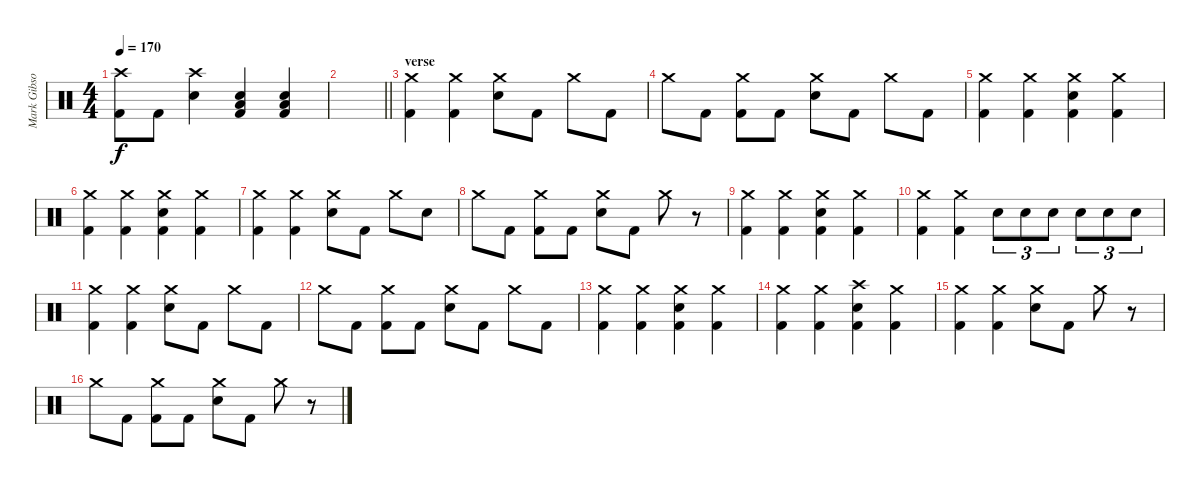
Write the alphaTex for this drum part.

\track ("Mark Gibson" "Mark Gibso") {instrument percussion}
\staff {score}
\articulation defaults
\ts (4 4)
\tempo 170
\clef neutral
\ks c
("Crash high (hit)" "Kick (hit) 2").8{dy f} "Kick (hit) 2".8 ("Crash high (hit)" "Electric Snare (hit)").4 ("Electric Snare (hit)" "Low Floor Tom (hit)" "Kick (hit) 2").4 ("Electric Snare (hit)" "Low Floor Tom (hit)" "Kick (hit) 2").4 |
\barLineRight lightlight
|
\section ("" "verse")
("Crash medium (hit)" "Kick (hit) 2").4 ("Crash medium (hit)" "Kick (hit) 2").4 ("Crash medium (hit)" "Electric Snare (hit)").8 "Kick (hit) 2".8 "Crash medium (hit)".8 "Kick (hit) 2".8 |
"Crash medium (hit)".8 "Kick (hit) 2".8 ("Crash medium (hit)" "Kick (hit) 2").8 "Kick (hit) 2".8 ("Crash medium (hit)" "Electric Snare (hit)").8 "Kick (hit) 2".8 "Crash medium (hit)".8 "Kick (hit) 2".8 |
("Crash medium (hit)" "Kick (hit) 2").4 ("Crash medium (hit)" "Kick (hit) 2").4 ("Crash medium (hit)" "Electric Snare (hit)" "Kick (hit) 2").4 ("Crash medium (hit)" "Kick (hit) 2").4 |
("Crash medium (hit)" "Kick (hit) 2").4 ("Crash medium (hit)" "Kick (hit) 2").4 ("Crash medium (hit)" "Electric Snare (hit)" "Kick (hit) 2").4 ("Crash medium (hit)" "Kick (hit) 2").4 |
("Crash medium (hit)" "Kick (hit) 2").4 ("Crash medium (hit)" "Kick (hit) 2").4 ("Crash medium (hit)" "Electric Snare (hit)").8 "Kick (hit) 2".8 "Crash medium (hit)".8 "Electric Snare (hit)".8 |
"Crash medium (hit)".8 "Kick (hit) 2".8 ("Crash medium (hit)" "Kick (hit) 2").8 "Kick (hit) 2".8 ("Crash medium (hit)" "Electric Snare (hit)").8 "Kick (hit) 2".8 "Crash medium (hit)".8 r.8 |
("Crash medium (hit)" "Kick (hit) 2").4 ("Crash medium (hit)" "Kick (hit) 2").4 ("Crash medium (hit)" "Electric Snare (hit)" "Kick (hit) 2").4 ("Crash medium (hit)" "Kick (hit) 2").4 |
("Crash medium (hit)" "Kick (hit) 2").4 ("Crash medium (hit)" "Kick (hit) 2").4 "Electric Snare (hit)".8{tu (3 2)} "Electric Snare (hit)".8{tu (3 2)} "Electric Snare (hit)".8{tu (3 2)} "Electric Snare (hit)".8{tu (3 2)} "Electric Snare (hit)".8{tu (3 2)} "Electric Snare (hit)".8{tu (3 2)} |
("Crash medium (hit)" "Kick (hit) 2").4 ("Crash medium (hit)" "Kick (hit) 2").4 ("Crash medium (hit)" "Electric Snare (hit)").8 "Kick (hit) 2".8 "Crash medium (hit)".8 "Kick (hit) 2".8 |
"Crash medium (hit)".8 "Kick (hit) 2".8 ("Crash medium (hit)" "Kick (hit) 2").8 "Kick (hit) 2".8 ("Crash medium (hit)" "Electric Snare (hit)").8 "Kick (hit) 2".8 "Crash medium (hit)".8 "Kick (hit) 2".8 |
("Crash medium (hit)" "Kick (hit) 2").4 ("Crash medium (hit)" "Kick (hit) 2").4 ("Crash medium (hit)" "Electric Snare (hit)" "Kick (hit) 2").4 ("Crash medium (hit)" "Kick (hit) 2").4 |
("Crash medium (hit)" "Kick (hit) 2").4 ("Crash medium (hit)" "Kick (hit) 2").4 ("Crash high (hit)" "Electric Snare (hit)" "Kick (hit) 2").4 ("Crash medium (hit)" "Kick (hit) 2").4 |
("Crash medium (hit)" "Kick (hit) 2").4 ("Crash medium (hit)" "Kick (hit) 2").4 ("Crash medium (hit)" "Electric Snare (hit)").8 "Kick (hit) 2".8 "Crash medium (hit)".8 r.8 |
"Crash medium (hit)".8 "Kick (hit) 2".8 ("Crash medium (hit)" "Kick (hit) 2").8 "Kick (hit) 2".8 ("Crash medium (hit)" "Electric Snare (hit)").8 "Kick (hit) 2".8 "Crash medium (hit)".8 r.8
